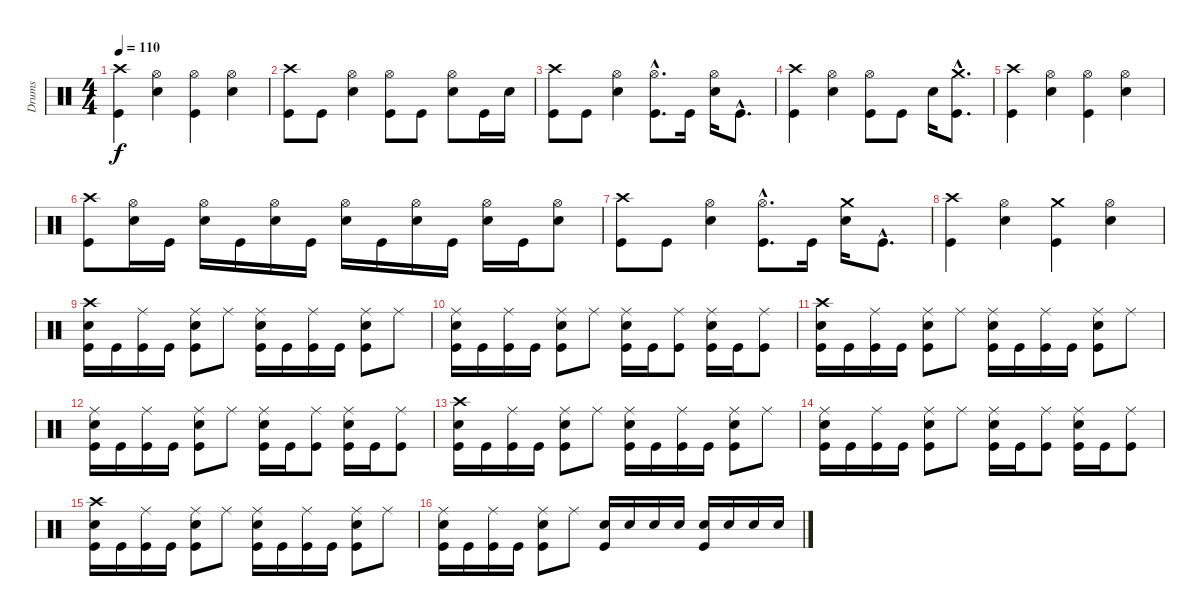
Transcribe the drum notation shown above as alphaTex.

\track ("Drums" "Drums") {instrument percussion}
\staff {score}
\articulation defaults
\ts (4 4)
\tempo 110
\clef neutral
\ks c
("Crash high (hit)" "Kick (hit)").4{dy f} ("Hi-Hat (open)" "Snare (hit) 2").4 ("Hi-Hat (open)" "Kick (hit)").4 ("Hi-Hat (open)" "Snare (hit) 2").4 |
("Crash high (hit)" "Kick (hit)").8 "Kick (hit)".8 ("Hi-Hat (open)" "Snare (hit) 2").4 ("Hi-Hat (open)" "Kick (hit)").8 "Kick (hit)".8 ("Hi-Hat (open)" "Snare (hit) 2").8 "Kick (hit)".16 "Snare (hit) 2".16 |
("Crash high (hit)" "Kick (hit)").8 "Kick (hit)".8 ("Hi-Hat (open)" "Snare (hit) 2").4 ("Hi-Hat (open)"{hac} "Kick (hit)"{hac}).8{d} "Kick (hit)".16 ("Hi-Hat (open)" "Snare (hit) 2").16 "Kick (hit)"{hac}.8{d} |
("Crash high (hit)" "Kick (hit)").4 ("Hi-Hat (open)" "Snare (hit) 2").4 ("Hi-Hat (open)" "Kick (hit)").8 "Kick (hit)".8 "Snare (hit) 2".16 ("Crash medium (hit)"{hac} "Kick (hit)"{hac}).8{d} |
("Crash high (hit)" "Kick (hit)").4 ("Hi-Hat (open)" "Snare (hit) 2").4 ("Hi-Hat (open)" "Kick (hit)").4 ("Hi-Hat (open)" "Snare (hit) 2").4 |
("Crash high (hit)" "Kick (hit)").8 ("Hi-Hat (open)" "Snare (hit) 2").16 "Kick (hit)".16 ("Hi-Hat (open)" "Snare (hit) 2").16 "Kick (hit)".16 ("Hi-Hat (open)" "Snare (hit) 2").16 "Kick (hit)".16 ("Hi-Hat (open)" "Snare (hit) 2").16 "Kick (hit)".16 ("Hi-Hat (open)" "Snare (hit) 2").16 "Kick (hit)".16 ("Hi-Hat (open)" "Snare (hit) 2").16 "Kick (hit)".16 ("Hi-Hat (open)" "Snare (hit) 2").8 |
("Crash high (hit)" "Kick (hit)").8 "Kick (hit)".8 ("Hi-Hat (open)" "Snare (hit) 2").4 ("Hi-Hat (open)"{hac} "Kick (hit)"{hac}).8{d} "Kick (hit)".16 ("Crash medium (hit)" "Snare (hit) 2").16 "Kick (hit)"{hac}.8{d} |
("Crash high (hit)" "Kick (hit)").4 ("Hi-Hat (open)" "Snare (hit) 2").4 ("Crash medium (hit)" "Kick (hit)").4 ("Hi-Hat (open)" "Snare (hit) 2").4 |
("Crash high (hit)" "Snare (hit) 2" "Kick (hit)").16 "Kick (hit)".16 ("Ride (middle)" "Kick (hit)").16 "Kick (hit)".16 ("Ride (middle)" "Snare (hit) 2" "Kick (hit)").8 "Ride (middle)".8 ("Ride (middle)" "Snare (hit) 2" "Kick (hit)").16 "Kick (hit)".16 ("Ride (middle)" "Kick (hit)").16 "Kick (hit)".16 ("Ride (middle)" "Snare (hit) 2" "Kick (hit)").8 "Ride (middle)".8 |
("Ride (middle)" "Snare (hit) 2" "Kick (hit)").16 "Kick (hit)".16 ("Ride (middle)" "Kick (hit)").16 "Kick (hit)".16 ("Ride (middle)" "Snare (hit) 2" "Kick (hit)").8 "Ride (middle)".8 ("Ride (middle)" "Snare (hit) 2" "Kick (hit)").16 "Kick (hit)".16 ("Ride (middle)" "Kick (hit)").8 ("Ride (middle)" "Snare (hit) 2" "Kick (hit)").16 "Kick (hit)".16 ("Ride (middle)" "Kick (hit)").8 |
("Crash high (hit)" "Snare (hit) 2" "Kick (hit)").16 "Kick (hit)".16 ("Ride (middle)" "Kick (hit)").16 "Kick (hit)".16 ("Ride (middle)" "Snare (hit) 2" "Kick (hit)").8 "Ride (middle)".8 ("Ride (middle)" "Snare (hit) 2" "Kick (hit)").16 "Kick (hit)".16 ("Ride (middle)" "Kick (hit)").16 "Kick (hit)".16 ("Ride (middle)" "Snare (hit) 2" "Kick (hit)").8 "Ride (middle)".8 |
("Ride (middle)" "Snare (hit) 2" "Kick (hit)").16 "Kick (hit)".16 ("Ride (middle)" "Kick (hit)").16 "Kick (hit)".16 ("Ride (middle)" "Snare (hit) 2" "Kick (hit)").8 "Ride (middle)".8 ("Ride (middle)" "Snare (hit) 2" "Kick (hit)").16 "Kick (hit)".16 ("Ride (middle)" "Kick (hit)").8 ("Ride (middle)" "Snare (hit) 2" "Kick (hit)").16 "Kick (hit)".16 ("Ride (middle)" "Kick (hit)").8 |
("Crash high (hit)" "Snare (hit) 2" "Kick (hit)").16 "Kick (hit)".16 ("Ride (middle)" "Kick (hit)").16 "Kick (hit)".16 ("Ride (middle)" "Snare (hit) 2" "Kick (hit)").8 "Ride (middle)".8 ("Ride (middle)" "Snare (hit) 2" "Kick (hit)").16 "Kick (hit)".16 ("Ride (middle)" "Kick (hit)").16 "Kick (hit)".16 ("Ride (middle)" "Snare (hit) 2" "Kick (hit)").8 "Ride (middle)".8 |
("Ride (middle)" "Snare (hit) 2" "Kick (hit)").16 "Kick (hit)".16 ("Ride (middle)" "Kick (hit)").16 "Kick (hit)".16 ("Ride (middle)" "Snare (hit) 2" "Kick (hit)").8 "Ride (middle)".8 ("Ride (middle)" "Snare (hit) 2" "Kick (hit)").16 "Kick (hit)".16 ("Ride (middle)" "Kick (hit)").8 ("Ride (middle)" "Snare (hit) 2" "Kick (hit)").16 "Kick (hit)".16 ("Ride (middle)" "Kick (hit)").8 |
("Crash high (hit)" "Snare (hit) 2" "Kick (hit)").16 "Kick (hit)".16 ("Ride (middle)" "Kick (hit)").16 "Kick (hit)".16 ("Ride (middle)" "Snare (hit) 2" "Kick (hit)").8 "Ride (middle)".8 ("Ride (middle)" "Snare (hit) 2" "Kick (hit)").16 "Kick (hit)".16 ("Ride (middle)" "Kick (hit)").16 "Kick (hit)".16 ("Ride (middle)" "Snare (hit) 2" "Kick (hit)").8 "Ride (middle)".8 |
("Ride (middle)" "Snare (hit) 2" "Kick (hit)").16 "Kick (hit)".16 ("Ride (middle)" "Kick (hit)").16 "Kick (hit)".16 ("Ride (middle)" "Snare (hit) 2" "Kick (hit)").8 "Ride (middle)".8 ("Snare (hit) 2" "Kick (hit)").16 "Snare (hit) 2".16 "Snare (hit) 2".16 "Snare (hit) 2".16 ("Snare (hit) 2" "Kick (hit)").16 "Snare (hit) 2".16 "Snare (hit) 2".16 "Snare (hit) 2".16
